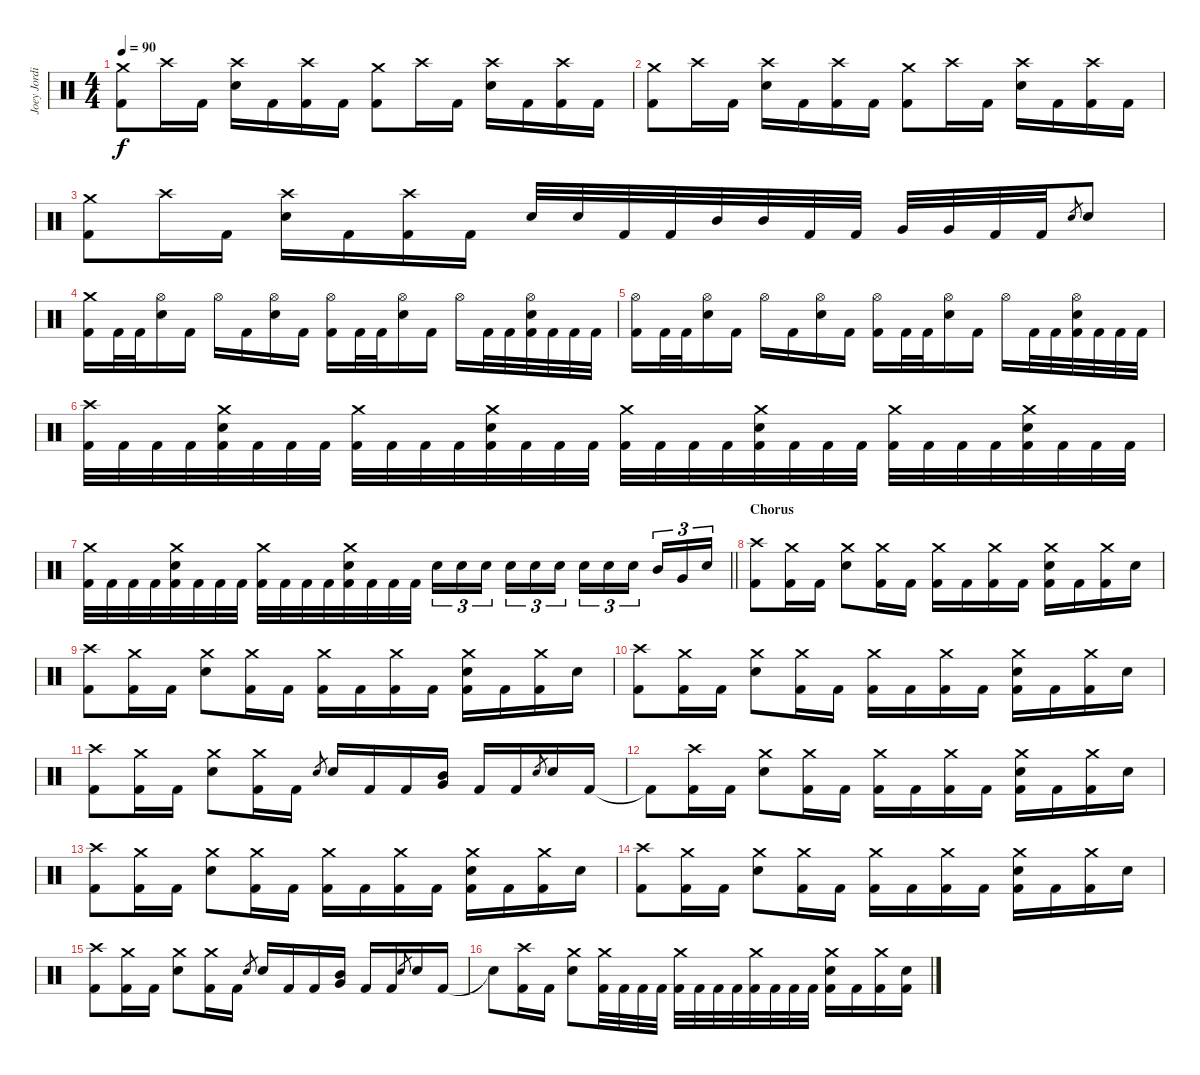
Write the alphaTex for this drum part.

\track ("Joey Jordison" "Joey Jordi") {instrument percussion}
\staff {score}
\articulation defaults
\ts (4 4)
\tempo 90
\clef neutral
\ks c
("Crash medium (hit)" "Kick (hit) 2").8{dy f} "Crash high (hit)".16 "Kick (hit) 2".16 ("Crash high (hit)" "Electric Snare (hit)").16 "Kick (hit) 2".16 ("Crash high (hit)" "Kick (hit) 2").16 "Kick (hit) 2".16 ("Crash medium (hit)" "Kick (hit) 2").8 "Crash high (hit)".16 "Kick (hit) 2".16 ("Crash high (hit)" "Electric Snare (hit)").16 "Kick (hit) 2".16 ("Crash high (hit)" "Kick (hit) 2").16 "Kick (hit) 2".16 |
("Crash medium (hit)" "Kick (hit) 2").8 "Crash high (hit)".16 "Kick (hit) 2".16 ("Crash high (hit)" "Electric Snare (hit)").16 "Kick (hit) 2".16 ("Crash high (hit)" "Kick (hit) 2").16 "Kick (hit) 2".16 ("Crash medium (hit)" "Kick (hit) 2").8 "Crash high (hit)".16 "Kick (hit) 2".16 ("Crash high (hit)" "Electric Snare (hit)").16 "Kick (hit) 2".16 ("Crash high (hit)" "Kick (hit) 2").16 "Kick (hit) 2".16 |
("Crash medium (hit)" "Kick (hit) 2").8 "Crash high (hit)".16 "Kick (hit) 2".16 ("Crash high (hit)" "Electric Snare (hit)").16 "Kick (hit) 2".16 ("Crash high (hit)" "Kick (hit) 2").16 "Kick (hit) 2".16 "Electric Snare (hit)".32 "Electric Snare (hit)".32 "Kick (hit) 2".32 "Kick (hit) 2".32 "Mid Tom (hit)".32 "Mid Tom (hit)".32 "Kick (hit) 2".32 "Kick (hit) 2".32 "Very Low Tom (hit)".32 "Very Low Tom (hit)".32 "Kick (hit) 2".32 "Kick (hit) 2".32 "Electric Snare (hit)".8{gr} "Electric Snare (hit)".8 |
("Crash medium (hit)" "Kick (hit) 2").16 "Kick (hit) 2".32 "Kick (hit) 2".32 ("Hi-Hat (open)" "Electric Snare (hit)").16 "Kick (hit) 2".16 "Hi-Hat (open)".16 "Kick (hit) 2".16 ("Hi-Hat (open)" "Electric Snare (hit)").16 "Kick (hit) 2".16 ("Hi-Hat (open)" "Kick (hit) 2").16 "Kick (hit) 2".32 "Kick (hit) 2".32 ("Hi-Hat (open)" "Electric Snare (hit)").16 "Kick (hit) 2".16 "Hi-Hat (open)".16 "Kick (hit) 2".32 "Kick (hit) 2".32 ("Hi-Hat (open)" "Electric Snare (hit)" "Kick (hit) 2").32 "Kick (hit) 2".32 "Kick (hit) 2".32 "Kick (hit) 2".32 |
("Hi-Hat (open)" "Kick (hit) 2").16 "Kick (hit) 2".32 "Kick (hit) 2".32 ("Hi-Hat (open)" "Electric Snare (hit)").16 "Kick (hit) 2".16 "Hi-Hat (open)".16 "Kick (hit) 2".16 ("Hi-Hat (open)" "Electric Snare (hit)").16 "Kick (hit) 2".16 ("Hi-Hat (open)" "Kick (hit) 2").16 "Kick (hit) 2".32 "Kick (hit) 2".32 ("Hi-Hat (open)" "Electric Snare (hit)").16 "Kick (hit) 2".16 "Hi-Hat (open)".16 "Kick (hit) 2".32 "Kick (hit) 2".32 ("Hi-Hat (open)" "Electric Snare (hit)" "Kick (hit) 2").32 "Kick (hit) 2".32 "Kick (hit) 2".32 "Kick (hit) 2".32 |
("Crash high (hit)" "Kick (hit) 2").32 "Kick (hit) 2".32 "Kick (hit) 2".32 "Kick (hit) 2".32 ("Crash medium (hit)" "Electric Snare (hit)" "Kick (hit) 2").32 "Kick (hit) 2".32 "Kick (hit) 2".32 "Kick (hit) 2".32 ("Crash medium (hit)" "Kick (hit) 2").32 "Kick (hit) 2".32 "Kick (hit) 2".32 "Kick (hit) 2".32 ("Crash medium (hit)" "Electric Snare (hit)" "Kick (hit) 2").32 "Kick (hit) 2".32 "Kick (hit) 2".32 "Kick (hit) 2".32 ("Crash medium (hit)" "Kick (hit) 2").32 "Kick (hit) 2".32 "Kick (hit) 2".32 "Kick (hit) 2".32 ("Crash medium (hit)" "Electric Snare (hit)" "Kick (hit) 2").32 "Kick (hit) 2".32 "Kick (hit) 2".32 "Kick (hit) 2".32 ("Crash medium (hit)" "Kick (hit) 2").32 "Kick (hit) 2".32 "Kick (hit) 2".32 "Kick (hit) 2".32 ("Crash medium (hit)" "Electric Snare (hit)" "Kick (hit) 2").32 "Kick (hit) 2".32 "Kick (hit) 2".32 "Kick (hit) 2".32 |
\barLineRight lightlight
("Crash medium (hit)" "Kick (hit) 2").32 "Kick (hit) 2".32 "Kick (hit) 2".32 "Kick (hit) 2".32 ("Crash medium (hit)" "Electric Snare (hit)" "Kick (hit) 2").32 "Kick (hit) 2".32 "Kick (hit) 2".32 "Kick (hit) 2".32 ("Crash medium (hit)" "Kick (hit) 2").32 "Kick (hit) 2".32 "Kick (hit) 2".32 "Kick (hit) 2".32 ("Crash medium (hit)" "Electric Snare (hit)" "Kick (hit) 2").32 "Kick (hit) 2".32 "Kick (hit) 2".32 "Kick (hit) 2".32 "Electric Snare (hit)".16{tu (3 2)} "Electric Snare (hit)".16{tu (3 2)} "Electric Snare (hit)".16{tu (3 2) beam splitsecondary} "Electric Snare (hit)".16{tu (3 2)} "Electric Snare (hit)".16{tu (3 2)} "Electric Snare (hit)".16{tu (3 2)} "Electric Snare (hit)".16{tu (3 2)} "Electric Snare (hit)".16{tu (3 2)} "Electric Snare (hit)".16{tu (3 2) beam splitsecondary} "Mid Tom (hit)".16{tu (3 2)} "Very Low Tom (hit)".16{tu (3 2)} "Electric Snare (hit)".16{tu (3 2)} |
\section ("" "Chorus")
("Crash high (hit)" "Kick (hit) 2").8 ("Crash medium (hit)" "Kick (hit) 2").16 "Kick (hit) 2".16 ("Crash medium (hit)" "Electric Snare (hit)").8 ("Crash medium (hit)" "Kick (hit) 2").16 "Kick (hit) 2".16 ("Crash medium (hit)" "Kick (hit) 2").16 "Kick (hit) 2".16 ("Crash medium (hit)" "Kick (hit) 2").16 "Kick (hit) 2".16 ("Crash medium (hit)" "Electric Snare (hit)" "Kick (hit) 2").16 "Kick (hit) 2".16 ("Crash medium (hit)" "Kick (hit) 2").16 "Electric Snare (hit)".16 |
("Crash high (hit)" "Kick (hit) 2").8 ("Crash medium (hit)" "Kick (hit) 2").16 "Kick (hit) 2".16 ("Crash medium (hit)" "Electric Snare (hit)").8 ("Crash medium (hit)" "Kick (hit) 2").16 "Kick (hit) 2".16 ("Crash medium (hit)" "Kick (hit) 2").16 "Kick (hit) 2".16 ("Crash medium (hit)" "Kick (hit) 2").16 "Kick (hit) 2".16 ("Crash medium (hit)" "Electric Snare (hit)" "Kick (hit) 2").16 "Kick (hit) 2".16 ("Crash medium (hit)" "Kick (hit) 2").16 "Electric Snare (hit)".16 |
("Crash high (hit)" "Kick (hit) 2").8 ("Crash medium (hit)" "Kick (hit) 2").16 "Kick (hit) 2".16 ("Crash medium (hit)" "Electric Snare (hit)").8 ("Crash medium (hit)" "Kick (hit) 2").16 "Kick (hit) 2".16 ("Crash medium (hit)" "Kick (hit) 2").16 "Kick (hit) 2".16 ("Crash medium (hit)" "Kick (hit) 2").16 "Kick (hit) 2".16 ("Crash medium (hit)" "Electric Snare (hit)" "Kick (hit) 2").16 "Kick (hit) 2".16 ("Crash medium (hit)" "Kick (hit) 2").16 "Electric Snare (hit)".16 |
("Crash high (hit)" "Kick (hit) 2").8 ("Crash medium (hit)" "Kick (hit) 2").16 "Kick (hit) 2".16 ("Crash medium (hit)" "Electric Snare (hit)").8 ("Crash medium (hit)" "Kick (hit) 2").16 "Kick (hit) 2".16 "Electric Snare (hit)".8{gr} "Electric Snare (hit)".16 "Kick (hit) 2".16 "Kick (hit) 2".16 ("Mid Tom (hit)" "Very Low Tom (hit)").16 "Kick (hit) 2".16 "Kick (hit) 2".16 "Electric Snare (hit)".8{gr} "Electric Snare (hit)".16 "Kick (hit) 2".16 |
"Kick (hit) 2"{t}.8 ("Crash high (hit)" "Kick (hit) 2").16 "Kick (hit) 2".16 ("Crash medium (hit)" "Electric Snare (hit)").8 ("Crash medium (hit)" "Kick (hit) 2").16 "Kick (hit) 2".16 ("Crash medium (hit)" "Kick (hit) 2").16 "Kick (hit) 2".16 ("Crash medium (hit)" "Kick (hit) 2").16 "Kick (hit) 2".16 ("Crash medium (hit)" "Electric Snare (hit)" "Kick (hit) 2").16 "Kick (hit) 2".16 ("Crash medium (hit)" "Kick (hit) 2").16 "Electric Snare (hit)".16 |
("Crash high (hit)" "Kick (hit) 2").8 ("Crash medium (hit)" "Kick (hit) 2").16 "Kick (hit) 2".16 ("Crash medium (hit)" "Electric Snare (hit)").8 ("Crash medium (hit)" "Kick (hit) 2").16 "Kick (hit) 2".16 ("Crash medium (hit)" "Kick (hit) 2").16 "Kick (hit) 2".16 ("Crash medium (hit)" "Kick (hit) 2").16 "Kick (hit) 2".16 ("Crash medium (hit)" "Electric Snare (hit)" "Kick (hit) 2").16 "Kick (hit) 2".16 ("Crash medium (hit)" "Kick (hit) 2").16 "Electric Snare (hit)".16 |
("Crash high (hit)" "Kick (hit) 2").8 ("Crash medium (hit)" "Kick (hit) 2").16 "Kick (hit) 2".16 ("Crash medium (hit)" "Electric Snare (hit)").8 ("Crash medium (hit)" "Kick (hit) 2").16 "Kick (hit) 2".16 ("Crash medium (hit)" "Kick (hit) 2").16 "Kick (hit) 2".16 ("Crash medium (hit)" "Kick (hit) 2").16 "Kick (hit) 2".16 ("Crash medium (hit)" "Electric Snare (hit)" "Kick (hit) 2").16 "Kick (hit) 2".16 ("Crash medium (hit)" "Kick (hit) 2").16 "Electric Snare (hit)".16 |
("Crash high (hit)" "Kick (hit) 2").8 ("Crash medium (hit)" "Kick (hit) 2").16 "Kick (hit) 2".16 ("Crash medium (hit)" "Electric Snare (hit)").8 ("Crash medium (hit)" "Kick (hit) 2").16 "Kick (hit) 2".16 "Electric Snare (hit)".8{gr} "Electric Snare (hit)".16 "Kick (hit) 2".16 "Kick (hit) 2".16 ("Mid Tom (hit)" "Very Low Tom (hit)").16 "Kick (hit) 2".16 "Kick (hit) 2".16 "Electric Snare (hit)".8{gr} "Electric Snare (hit)".16 "Kick (hit) 2".16 |
"Snare (hit)"{t}.8 ("Crash high (hit)" "Kick (hit) 2").16 "Kick (hit) 2".16 ("Crash medium (hit)" "Electric Snare (hit)").8 ("Crash medium (hit)" "Kick (hit) 2").32 "Kick (hit) 2".32 "Kick (hit) 2".32 "Kick (hit) 2".32 ("Crash medium (hit)" "Kick (hit) 2").32 "Kick (hit) 2".32 "Kick (hit) 2".32 "Kick (hit) 2".32 ("Crash medium (hit)" "Kick (hit) 2").32 "Kick (hit) 2".32 "Kick (hit) 2".32 "Kick (hit) 2".32 ("Crash medium (hit)" "Electric Snare (hit)" "Kick (hit) 2").16 "Kick (hit) 2".16 ("Crash medium (hit)" "Kick (hit) 2").16 ("Electric Snare (hit)" "Kick (hit) 2").16
